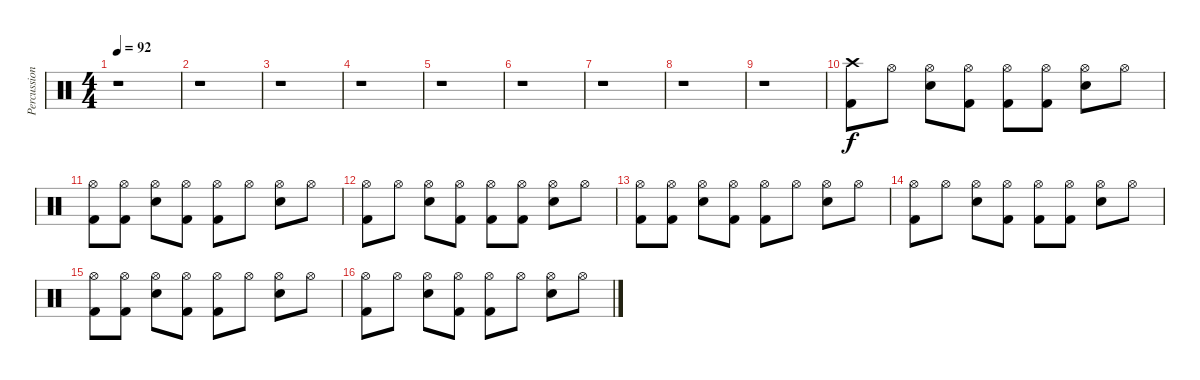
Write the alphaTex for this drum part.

\track ("Percussion" "Percussion") {instrument percussion}
\staff {score}
\articulation defaults
\ts (4 4)
\tempo 92
\clef neutral
\ks c
r.1{dy f} |
r.1 |
r.1 |
r.1 |
r.1 |
r.1 |
r.1 |
r.1 |
r.1 |
("Crash high (hit)" "Kick (hit) 2").8 "Hi-Hat (open)".8 ("Hi-Hat (open)" "Electric Snare (hit)").8 ("Hi-Hat (open)" "Kick (hit) 2").8 ("Hi-Hat (open)" "Kick (hit) 2").8 ("Hi-Hat (open)" "Kick (hit) 2").8 ("Hi-Hat (open)" "Electric Snare (hit)").8 "Hi-Hat (open)".8 |
("Hi-Hat (open)" "Kick (hit) 2").8 ("Hi-Hat (open)" "Kick (hit) 2").8 ("Hi-Hat (open)" "Electric Snare (hit)").8 ("Hi-Hat (open)" "Kick (hit) 2").8 ("Hi-Hat (open)" "Kick (hit) 2").8 "Hi-Hat (open)".8 ("Hi-Hat (open)" "Electric Snare (hit)").8 "Hi-Hat (open)".8 |
("Hi-Hat (open)" "Kick (hit) 2").8 "Hi-Hat (open)".8 ("Hi-Hat (open)" "Electric Snare (hit)").8 ("Hi-Hat (open)" "Kick (hit) 2").8 ("Hi-Hat (open)" "Kick (hit) 2").8 ("Hi-Hat (open)" "Kick (hit) 2").8 ("Hi-Hat (open)" "Electric Snare (hit)").8 "Hi-Hat (open)".8 |
("Hi-Hat (open)" "Kick (hit) 2").8 ("Hi-Hat (open)" "Kick (hit) 2").8 ("Hi-Hat (open)" "Electric Snare (hit)").8 ("Hi-Hat (open)" "Kick (hit) 2").8 ("Hi-Hat (open)" "Kick (hit) 2").8 "Hi-Hat (open)".8 ("Hi-Hat (open)" "Electric Snare (hit)").8 "Hi-Hat (open)".8 |
("Hi-Hat (open)" "Kick (hit) 2").8 "Hi-Hat (open)".8 ("Hi-Hat (open)" "Electric Snare (hit)").8 ("Hi-Hat (open)" "Kick (hit) 2").8 ("Hi-Hat (open)" "Kick (hit) 2").8 ("Hi-Hat (open)" "Kick (hit) 2").8 ("Hi-Hat (open)" "Electric Snare (hit)").8 "Hi-Hat (open)".8 |
("Hi-Hat (open)" "Kick (hit) 2").8 ("Hi-Hat (open)" "Kick (hit) 2").8 ("Hi-Hat (open)" "Electric Snare (hit)").8 ("Hi-Hat (open)" "Kick (hit) 2").8 ("Hi-Hat (open)" "Kick (hit) 2").8 "Hi-Hat (open)".8 ("Hi-Hat (open)" "Electric Snare (hit)").8 "Hi-Hat (open)".8 |
("Hi-Hat (open)" "Kick (hit) 2").8 "Hi-Hat (open)".8 ("Hi-Hat (open)" "Electric Snare (hit)").8 ("Hi-Hat (open)" "Kick (hit) 2").8 ("Hi-Hat (open)" "Kick (hit) 2").8 "Hi-Hat (open)".8 ("Hi-Hat (open)" "Electric Snare (hit)").8 "Hi-Hat (open)".8
